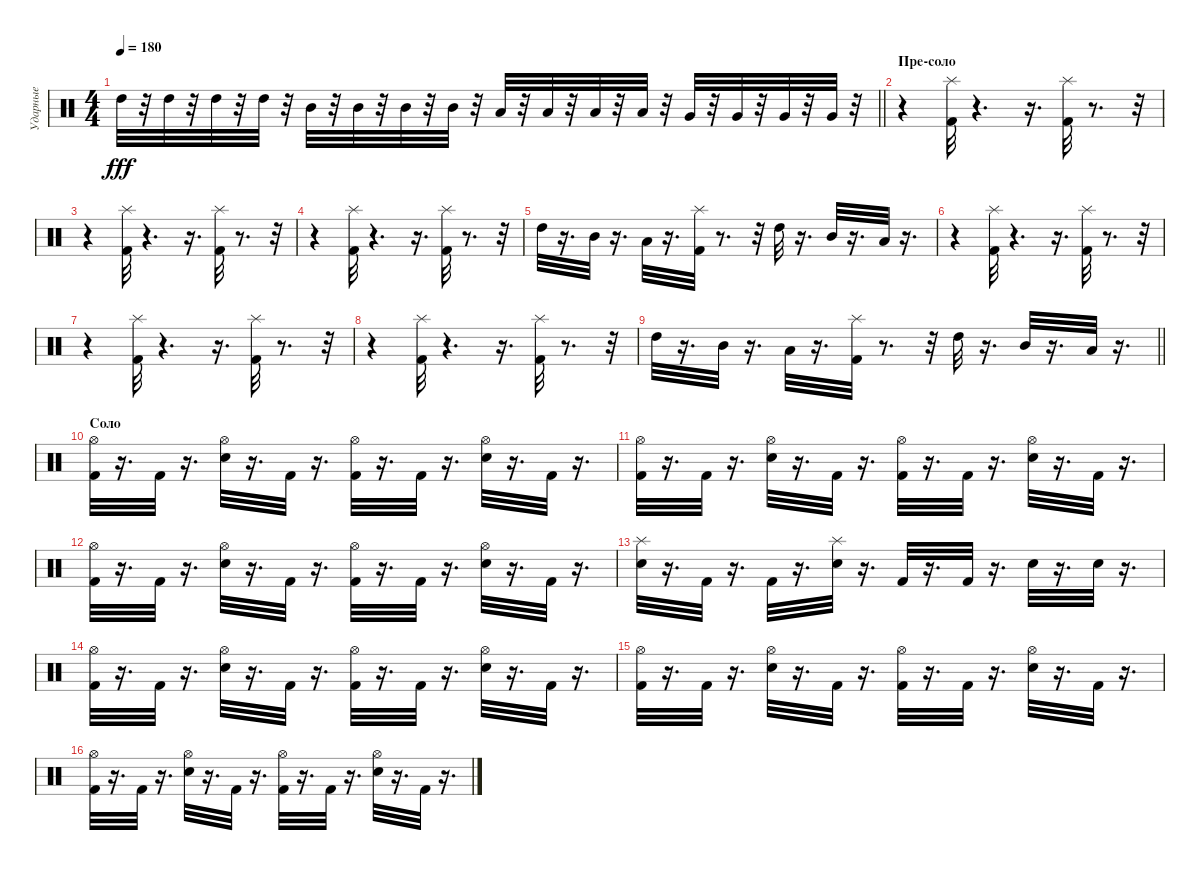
\track ("Ударные" "Ударные") {instrument percussion}
\staff {score}
\articulation defaults
\ts (4 4)
\tempo 180
\clef neutral
\barLineRight lightlight
\ks c "High Tom (hit)".32{dy fff}
r.32 "High Tom (hit)".32 r.32 "High Tom (hit)".32 r.32 "High Tom (hit)".32 r.32 "Mid Tom (hit)".32 r.32 "Mid Tom (hit)".32 r.32 "Mid Tom (hit)".32 r.32 "Mid Tom (hit)".32 r.32 "Low Tom (hit)".32 r.32 "Low Tom (hit)".32 r.32 "Low Tom (hit)".32 r.32 "Low Tom (hit)".32 r.32 "Very Low Tom (hit)".32 r.32 "Very Low Tom (hit)".32 r.32 "Very Low Tom (hit)".32 r.32 "Very Low Tom (hit)".32 r.32 |
\section ("" "Пре-соло")
r.4 ("Kick (hit) 2" "Splash (hit)").32 r.4{d} r.16{d} ("Splash (hit)" "Kick (hit) 2").32 r.8{d} r.32 |
r.4 ("Kick (hit) 2" "Splash (hit)").32 r.4{d} r.16{d} ("Kick (hit) 2" "Splash (hit)").32 r.8{d} r.32 |
r.4 ("Kick (hit) 2" "Splash (hit)").32 r.4{d} r.16{d} ("Splash (hit)" "Kick (hit) 2").32 r.8{d} r.32 |
"High Tom (hit)".32 r.16{d} "Mid Tom (hit)".32 r.16{d} "Low Tom (hit)".32 r.16{d} ("Kick (hit) 2" "Splash (hit)").32 r.8{d} r.32 "High Tom (hit)".32 r.16{d} "Mid Tom (hit)".32 r.16{d} "Low Tom (hit)".32 r.16{d} |
r.4 ("Kick (hit) 2" "Splash (hit)").32 r.4{d} r.16{d} ("Splash (hit)" "Kick (hit) 2").32 r.8{d} r.32 |
r.4 ("Kick (hit) 2" "Splash (hit)").32 r.4{d} r.16{d} ("Splash (hit)" "Kick (hit) 2").32 r.8{d} r.32 |
r.4 ("Kick (hit) 2" "Splash (hit)").32 r.4{d} r.16{d} ("Kick (hit) 2" "Splash (hit)").32 r.8{d} r.32 |
\barLineRight lightlight "High Tom (hit)".32
r.16{d} "Mid Tom (hit)".32 r.16{d} "Low Tom (hit)".32 r.16{d} ("Splash (hit)" "Kick (hit) 2").32 r.8{d} r.32 "High Tom (hit)".32 r.16{d} "Mid Tom (hit)".32 r.16{d} "Low Tom (hit)".32 r.16{d} |
\section ("" "Соло")
("Hi-Hat (open)" "Kick (hit) 2").32 r.16{d} "Kick (hit) 2".32 r.16{d} ("Hi-Hat (open)" "Snare (hit) 2").32 r.16{d} "Kick (hit) 2".32 r.16{d} ("Kick (hit) 2" "Hi-Hat (open)").32 r.16{d} "Kick (hit) 2".32 r.16{d} ("Snare (hit) 2" "Hi-Hat (open)").32 r.16{d} "Kick (hit) 2".32 r.16{d} |
("Hi-Hat (open)" "Kick (hit) 2").32 r.16{d} "Kick (hit) 2".32 r.16{d} ("Hi-Hat (open)" "Snare (hit) 2").32 r.16{d} "Kick (hit) 2".32 r.16{d} ("Hi-Hat (open)" "Kick (hit) 2").32 r.16{d} "Kick (hit) 2".32 r.16{d} ("Snare (hit) 2" "Hi-Hat (open)").32 r.16{d} "Kick (hit) 2".32 r.16{d} |
("Hi-Hat (open)" "Kick (hit) 2").32 r.16{d} "Kick (hit) 2".32 r.16{d} ("Snare (hit) 2" "Hi-Hat (open)").32 r.16{d} "Kick (hit) 2".32 r.16{d} ("Hi-Hat (open)" "Kick (hit) 2").32 r.16{d} "Kick (hit) 2".32 r.16{d} ("Hi-Hat (open)" "Snare (hit) 2").32 r.16{d} "Kick (hit) 2".32 r.16{d} |
("Electric Snare (hit)" "Splash (hit)").32 r.16{d} "Kick (hit) 2".32 r.16{d} "Kick (hit) 2".32 r.16{d} ("Splash (hit)" "Electric Snare (hit)").32 r.16{d} "Kick (hit) 2".32 r.16{d} "Kick (hit) 2".32 r.16{d} "Electric Snare (hit)".32 r.16{d} "Electric Snare (hit)".32 r.16{d} |
("Hi-Hat (open)" "Kick (hit) 2").32 r.16{d} "Kick (hit) 2".32 r.16{d} ("Snare (hit) 2" "Hi-Hat (open)").32 r.16{d} "Kick (hit) 2".32 r.16{d} ("Kick (hit) 2" "Hi-Hat (open)").32 r.16{d} "Kick (hit) 2".32 r.16{d} ("Snare (hit) 2" "Hi-Hat (open)").32 r.16{d} "Kick (hit) 2".32 r.16{d} |
("Kick (hit) 2" "Hi-Hat (open)").32 r.16{d} "Kick (hit) 2".32 r.16{d} ("Snare (hit) 2" "Hi-Hat (open)").32 r.16{d} "Kick (hit) 2".32 r.16{d} ("Hi-Hat (open)" "Kick (hit) 2").32 r.16{d} "Kick (hit) 2".32 r.16{d} ("Hi-Hat (open)" "Snare (hit) 2").32 r.16{d} "Kick (hit) 2".32 r.16{d} |
("Hi-Hat (open)" "Kick (hit) 2").32 r.16{d} "Kick (hit) 2".32 r.16{d} ("Snare (hit) 2" "Hi-Hat (open)").32 r.16{d} "Kick (hit) 2".32 r.16{d} ("Hi-Hat (open)" "Kick (hit) 2").32 r.16{d} "Kick (hit) 2".32 r.16{d} ("Hi-Hat (open)" "Snare (hit) 2").32 r.16{d} "Kick (hit) 2".32 r.16{d}
